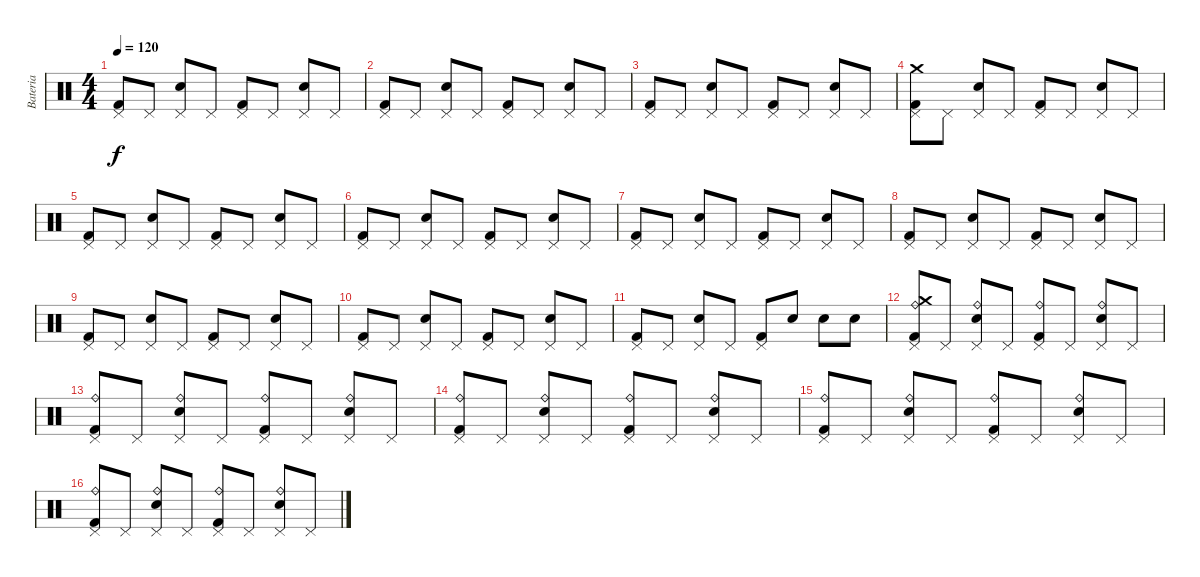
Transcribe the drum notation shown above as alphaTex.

\track ("Bateria" "Bateria") {instrument percussion}
\staff {score}
\articulation defaults
\ts (4 4)
\tempo 120
\clef neutral
\ks c
("Pedal Hi-Hat (hit)" "Kick (hit) 2").8{dy f} "Pedal Hi-Hat (hit)".8 ("Pedal Hi-Hat (hit)" "Electric Snare (hit)").8 "Pedal Hi-Hat (hit)".8 ("Pedal Hi-Hat (hit)" "Kick (hit) 2").8 "Pedal Hi-Hat (hit)".8 ("Pedal Hi-Hat (hit)" "Electric Snare (hit)").8 "Pedal Hi-Hat (hit)".8 |
("Pedal Hi-Hat (hit)" "Kick (hit) 2").8 "Pedal Hi-Hat (hit)".8 ("Pedal Hi-Hat (hit)" "Electric Snare (hit)").8 "Pedal Hi-Hat (hit)".8 ("Pedal Hi-Hat (hit)" "Kick (hit) 2").8 "Pedal Hi-Hat (hit)".8 ("Pedal Hi-Hat (hit)" "Electric Snare (hit)").8 "Pedal Hi-Hat (hit)".8 |
("Pedal Hi-Hat (hit)" "Kick (hit) 2").8 "Pedal Hi-Hat (hit)".8 ("Pedal Hi-Hat (hit)" "Electric Snare (hit)").8 "Pedal Hi-Hat (hit)".8 ("Pedal Hi-Hat (hit)" "Kick (hit) 2").8 "Pedal Hi-Hat (hit)".8 ("Pedal Hi-Hat (hit)" "Electric Snare (hit)").8 "Pedal Hi-Hat (hit)".8 |
("Pedal Hi-Hat (hit)" "Kick (hit) 2" "Crash medium (hit)").8 "Pedal Hi-Hat (hit)".8 ("Pedal Hi-Hat (hit)" "Electric Snare (hit)").8 "Pedal Hi-Hat (hit)".8 ("Pedal Hi-Hat (hit)" "Kick (hit) 2").8 "Pedal Hi-Hat (hit)".8 ("Pedal Hi-Hat (hit)" "Electric Snare (hit)").8 "Pedal Hi-Hat (hit)".8 |
("Pedal Hi-Hat (hit)" "Kick (hit) 2").8 "Pedal Hi-Hat (hit)".8 ("Pedal Hi-Hat (hit)" "Electric Snare (hit)").8 "Pedal Hi-Hat (hit)".8 ("Pedal Hi-Hat (hit)" "Kick (hit) 2").8 "Pedal Hi-Hat (hit)".8 ("Pedal Hi-Hat (hit)" "Electric Snare (hit)").8 "Pedal Hi-Hat (hit)".8 |
("Pedal Hi-Hat (hit)" "Kick (hit) 2").8 "Pedal Hi-Hat (hit)".8 ("Pedal Hi-Hat (hit)" "Electric Snare (hit)").8 "Pedal Hi-Hat (hit)".8 ("Pedal Hi-Hat (hit)" "Kick (hit) 2").8 "Pedal Hi-Hat (hit)".8 ("Pedal Hi-Hat (hit)" "Electric Snare (hit)").8 "Pedal Hi-Hat (hit)".8 |
("Pedal Hi-Hat (hit)" "Kick (hit) 2").8 "Pedal Hi-Hat (hit)".8 ("Pedal Hi-Hat (hit)" "Electric Snare (hit)").8 "Pedal Hi-Hat (hit)".8 ("Pedal Hi-Hat (hit)" "Kick (hit) 2").8 "Pedal Hi-Hat (hit)".8 ("Pedal Hi-Hat (hit)" "Electric Snare (hit)").8 "Pedal Hi-Hat (hit)".8 |
("Pedal Hi-Hat (hit)" "Kick (hit) 2").8 "Pedal Hi-Hat (hit)".8 ("Pedal Hi-Hat (hit)" "Electric Snare (hit)").8 "Pedal Hi-Hat (hit)".8 ("Pedal Hi-Hat (hit)" "Kick (hit) 2").8 "Pedal Hi-Hat (hit)".8 ("Pedal Hi-Hat (hit)" "Electric Snare (hit)").8 "Pedal Hi-Hat (hit)".8 |
("Pedal Hi-Hat (hit)" "Kick (hit) 2").8 "Pedal Hi-Hat (hit)".8 ("Pedal Hi-Hat (hit)" "Electric Snare (hit)").8 "Pedal Hi-Hat (hit)".8 ("Pedal Hi-Hat (hit)" "Kick (hit) 2").8 "Pedal Hi-Hat (hit)".8 ("Pedal Hi-Hat (hit)" "Electric Snare (hit)").8 "Pedal Hi-Hat (hit)".8 |
("Pedal Hi-Hat (hit)" "Kick (hit) 2").8 "Pedal Hi-Hat (hit)".8 ("Pedal Hi-Hat (hit)" "Electric Snare (hit)").8 "Pedal Hi-Hat (hit)".8 ("Pedal Hi-Hat (hit)" "Kick (hit) 2").8 "Pedal Hi-Hat (hit)".8 ("Pedal Hi-Hat (hit)" "Electric Snare (hit)").8 "Pedal Hi-Hat (hit)".8 |
("Pedal Hi-Hat (hit)" "Kick (hit) 2").8 "Pedal Hi-Hat (hit)".8 ("Pedal Hi-Hat (hit)" "Electric Snare (hit)").8 "Pedal Hi-Hat (hit)".8 ("Pedal Hi-Hat (hit)" "Kick (hit) 2").8 "Electric Snare (hit)".8 "Electric Snare (hit)".8 "Electric Snare (hit)".8 |
("Pedal Hi-Hat (hit)" "Kick (hit) 2" "Crash medium (hit)" "Ride (bell)").8 "Pedal Hi-Hat (hit)".8 ("Pedal Hi-Hat (hit)" "Electric Snare (hit)" "Ride (bell)").8 "Pedal Hi-Hat (hit)".8 ("Pedal Hi-Hat (hit)" "Kick (hit) 2" "Ride (bell)").8 "Pedal Hi-Hat (hit)".8 ("Pedal Hi-Hat (hit)" "Electric Snare (hit)" "Ride (bell)").8 "Pedal Hi-Hat (hit)".8 |
("Pedal Hi-Hat (hit)" "Kick (hit) 2" "Ride (bell)").8 "Pedal Hi-Hat (hit)".8 ("Pedal Hi-Hat (hit)" "Electric Snare (hit)" "Ride (bell)").8 "Pedal Hi-Hat (hit)".8 ("Pedal Hi-Hat (hit)" "Kick (hit) 2" "Ride (bell)").8 "Pedal Hi-Hat (hit)".8 ("Pedal Hi-Hat (hit)" "Electric Snare (hit)" "Ride (bell)").8 "Pedal Hi-Hat (hit)".8 |
("Pedal Hi-Hat (hit)" "Kick (hit) 2" "Ride (bell)").8 "Pedal Hi-Hat (hit)".8 ("Pedal Hi-Hat (hit)" "Electric Snare (hit)" "Ride (bell)").8 "Pedal Hi-Hat (hit)".8 ("Pedal Hi-Hat (hit)" "Kick (hit) 2" "Ride (bell)").8 "Pedal Hi-Hat (hit)".8 ("Pedal Hi-Hat (hit)" "Electric Snare (hit)" "Ride (bell)").8 "Pedal Hi-Hat (hit)".8 |
("Pedal Hi-Hat (hit)" "Kick (hit) 2" "Ride (bell)").8 "Pedal Hi-Hat (hit)".8 ("Pedal Hi-Hat (hit)" "Electric Snare (hit)" "Ride (bell)").8 "Pedal Hi-Hat (hit)".8 ("Pedal Hi-Hat (hit)" "Kick (hit) 2" "Ride (bell)").8 "Pedal Hi-Hat (hit)".8 ("Pedal Hi-Hat (hit)" "Electric Snare (hit)" "Ride (bell)").8 "Pedal Hi-Hat (hit)".8 |
("Pedal Hi-Hat (hit)" "Kick (hit) 2" "Ride (bell)").8 "Pedal Hi-Hat (hit)".8 ("Pedal Hi-Hat (hit)" "Electric Snare (hit)" "Ride (bell)").8 "Pedal Hi-Hat (hit)".8 ("Pedal Hi-Hat (hit)" "Kick (hit) 2" "Ride (bell)").8 "Pedal Hi-Hat (hit)".8 ("Pedal Hi-Hat (hit)" "Electric Snare (hit)" "Ride (bell)").8 "Pedal Hi-Hat (hit)".8
